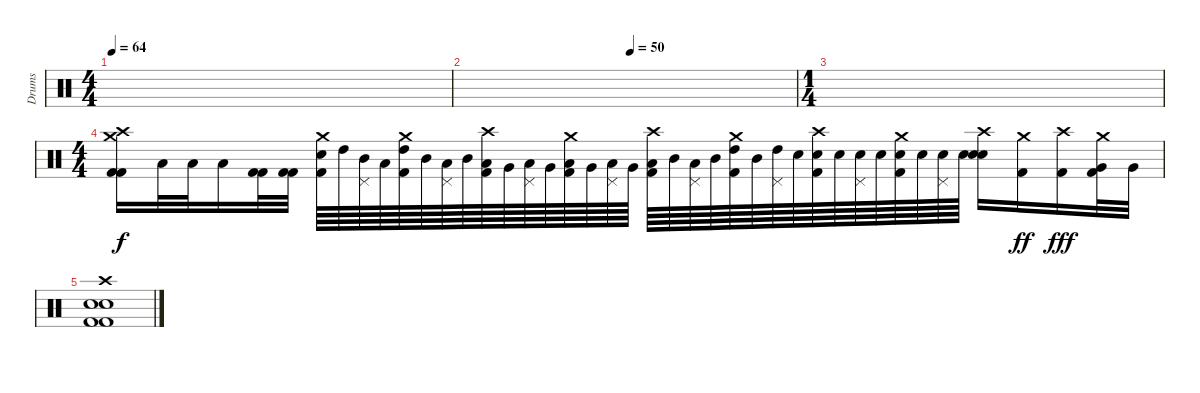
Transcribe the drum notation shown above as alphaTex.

\track ("Drums" "Drums") {instrument percussion}
\staff {score}
\articulation defaults
\ts (4 4)
\tempo 64
\clef neutral
\ks c
|
\tempo (50 0.5)
|
\ts (1 4)
|
\ts (4 4)
("Crash high (hit)" "Crash medium (hit)" "Kick (hit) 2" "Kick (hit) 2").16 "Low Floor Tom (hit)".32 "Low Floor Tom (hit)".32 "Low Floor Tom (hit)".16 ("Kick (hit) 2" "Kick (hit) 2").32 ("Kick (hit) 2" "Kick (hit) 2").32 ("Crash medium (hit)" "Snare (hit) 2" "Kick (hit) 2").64 "High Tom (hit)".64 ("Mid Tom (hit)" "Pedal Hi-Hat (hit)").64 "Low Tom (hit)".64 ("Crash medium (hit)" "High Tom (hit)" "Kick (hit) 2").64 "Mid Tom (hit)".64 ("Low Tom (hit)" "Pedal Hi-Hat (hit)").64 "Mid Tom (hit)".64 ("Crash high (hit)" "Low Tom (hit)" "Kick (hit) 2").64 "Very Low Tom (hit)".64 ("Low Tom (hit)" "Pedal Hi-Hat (hit)").64 "Very Low Tom (hit)".64 ("Crash medium (hit)" "Low Floor Tom (hit)" "Kick (hit) 2").64 "Very Low Tom (hit)".64 ("Low Tom (hit)" "Pedal Hi-Hat (hit)").64 "Very Low Tom (hit)".64 ("Crash high (hit)" "Low Tom (hit)" "Kick (hit) 2").64 "Mid Tom (hit)".64 ("Low Tom (hit)" "Pedal Hi-Hat (hit)").64 "Mid Tom (hit)".64 ("Crash medium (hit)" "High Tom (hit)" "Kick (hit) 2").64 "Mid Tom (hit)".64 ("High Tom (hit)" "Pedal Hi-Hat (hit)").64 "Snare (hit) 2".64 ("Crash high (hit)" "Snare (hit) 2" "Kick (hit) 2").64 "Snare (hit) 2".64 ("Snare (hit) 2" "Pedal Hi-Hat (hit)").64 "Snare (hit) 2".64 ("Crash medium (hit)" "Snare (hit) 2" "Kick (hit) 2").64 "Snare (hit)".64 ("Snare (hit) 2" "Pedal Hi-Hat (hit)").64 "Snare (hit) 2".64 ("Crash high (hit)" "Snare (hit) 2" "Snare (hit) 2").16 ("Crash medium (hit)" "Kick (hit) 2").16{dy ff} ("Crash high (hit)" "Kick (hit) 2").16{dy fff} ("Crash medium (hit)" "Very Low Tom (hit)" "Kick (hit) 2").32 "Very Low Tom (hit)".32 |
("Crash high (hit)" "Snare (hit) 2" "Snare (hit) 2" "Kick (hit) 2" "Kick (hit) 2").1
